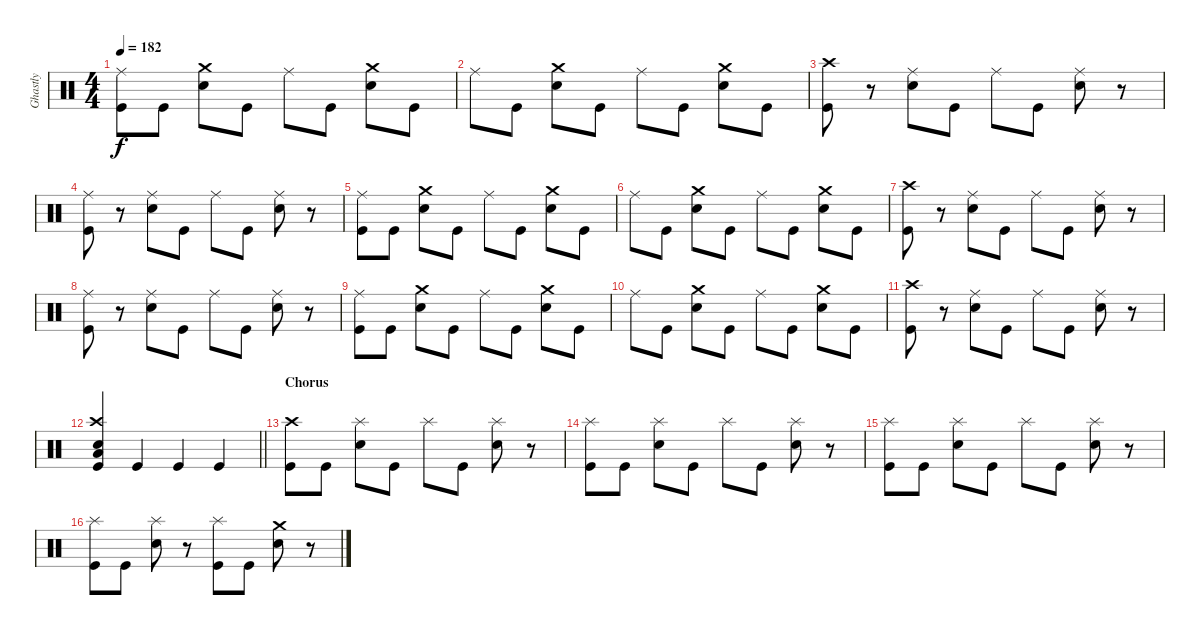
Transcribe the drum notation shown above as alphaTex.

\track ("Ghastly" "Ghastly") {instrument percussion}
\staff {score}
\articulation defaults
\ts (4 4)
\tempo 182
\clef neutral
\ks c
("Ride (middle)" "Kick (hit)").8{dy f} "Kick (hit)".8 ("Crash medium (hit)" "Electric Snare (hit)").8 "Kick (hit)".8 "Ride (middle)".8 "Kick (hit)".8 ("Crash medium (hit)" "Electric Snare (hit)").8 "Kick (hit)".8 |
"Ride (middle)".8 "Kick (hit)".8 ("Crash medium (hit)" "Electric Snare (hit)").8 "Kick (hit)".8 "Ride (middle)".8 "Kick (hit)".8 ("Crash medium (hit)" "Electric Snare (hit)").8 "Kick (hit)".8 |
("Crash high (hit)" "Kick (hit)").8 r.8 ("Ride (middle)" "Electric Snare (hit)").8 "Kick (hit)".8 "Ride (middle)".8 "Kick (hit)".8 ("Ride (middle)" "Electric Snare (hit)").8 r.8 |
("Ride (middle)" "Kick (hit)").8 r.8 ("Ride (middle)" "Electric Snare (hit)").8 "Kick (hit)".8 "Ride (middle)".8 "Kick (hit)".8 ("Ride (middle)" "Electric Snare (hit)").8 r.8 |
("Ride (middle)" "Kick (hit)").8 "Kick (hit)".8 ("Crash medium (hit)" "Electric Snare (hit)").8 "Kick (hit)".8 "Ride (middle)".8 "Kick (hit)".8 ("Crash medium (hit)" "Electric Snare (hit)").8 "Kick (hit)".8 |
"Ride (middle)".8 "Kick (hit)".8 ("Crash medium (hit)" "Electric Snare (hit)").8 "Kick (hit)".8 "Ride (middle)".8 "Kick (hit)".8 ("Crash medium (hit)" "Electric Snare (hit)").8 "Kick (hit)".8 |
("Crash high (hit)" "Kick (hit)").8 r.8 ("Ride (middle)" "Electric Snare (hit)").8 "Kick (hit)".8 "Ride (middle)".8 "Kick (hit)".8 ("Ride (middle)" "Electric Snare (hit)").8 r.8 |
("Ride (middle)" "Kick (hit)").8 r.8 ("Ride (middle)" "Electric Snare (hit)").8 "Kick (hit)".8 "Ride (middle)".8 "Kick (hit)".8 ("Ride (middle)" "Electric Snare (hit)").8 r.8 |
("Ride (middle)" "Kick (hit)").8 "Kick (hit)".8 ("Crash medium (hit)" "Electric Snare (hit)").8 "Kick (hit)".8 "Ride (middle)".8 "Kick (hit)".8 ("Crash medium (hit)" "Electric Snare (hit)").8 "Kick (hit)".8 |
"Ride (middle)".8 "Kick (hit)".8 ("Crash medium (hit)" "Electric Snare (hit)").8 "Kick (hit)".8 "Ride (middle)".8 "Kick (hit)".8 ("Crash medium (hit)" "Electric Snare (hit)").8 "Kick (hit)".8 |
("Crash high (hit)" "Kick (hit)").8 r.8 ("Ride (middle)" "Electric Snare (hit)").8 "Kick (hit)".8 "Ride (middle)".8 "Kick (hit)".8 ("Ride (middle)" "Electric Snare (hit)").8 r.8 |
\barLineRight lightlight
("Crash high (hit)" "Low Tom (hit)" "Electric Snare (hit)" "Kick (hit)").4 "Kick (hit)".4 "Kick (hit)".4 "Kick (hit)".4 |
\section ("" "Chorus")
("Crash high (hit)" "Kick (hit)").8 "Kick (hit)".8 ("Splash (hit)" "Electric Snare (hit)").8 "Kick (hit)".8 "Splash (hit)".8 "Kick (hit)".8 ("Splash (hit)" "Electric Snare (hit)").8 r.8 |
("Splash (hit)" "Kick (hit)").8 "Kick (hit)".8 ("Splash (hit)" "Electric Snare (hit)").8 "Kick (hit)".8 "Splash (hit)".8 "Kick (hit)".8 ("Splash (hit)" "Electric Snare (hit)").8 r.8 |
("Splash (hit)" "Kick (hit)").8 "Kick (hit)".8 ("Splash (hit)" "Electric Snare (hit)").8 "Kick (hit)".8 "Splash (hit)".8 "Kick (hit)".8 ("Splash (hit)" "Electric Snare (hit)").8 r.8 |
("Splash (hit)" "Kick (hit)").8 "Kick (hit)".8 ("Splash (hit)" "Electric Snare (hit)").8 r.8 ("Splash (hit)" "Kick (hit)").8 "Kick (hit)".8 ("Crash medium (hit)" "Electric Snare (hit)").8 r.8
